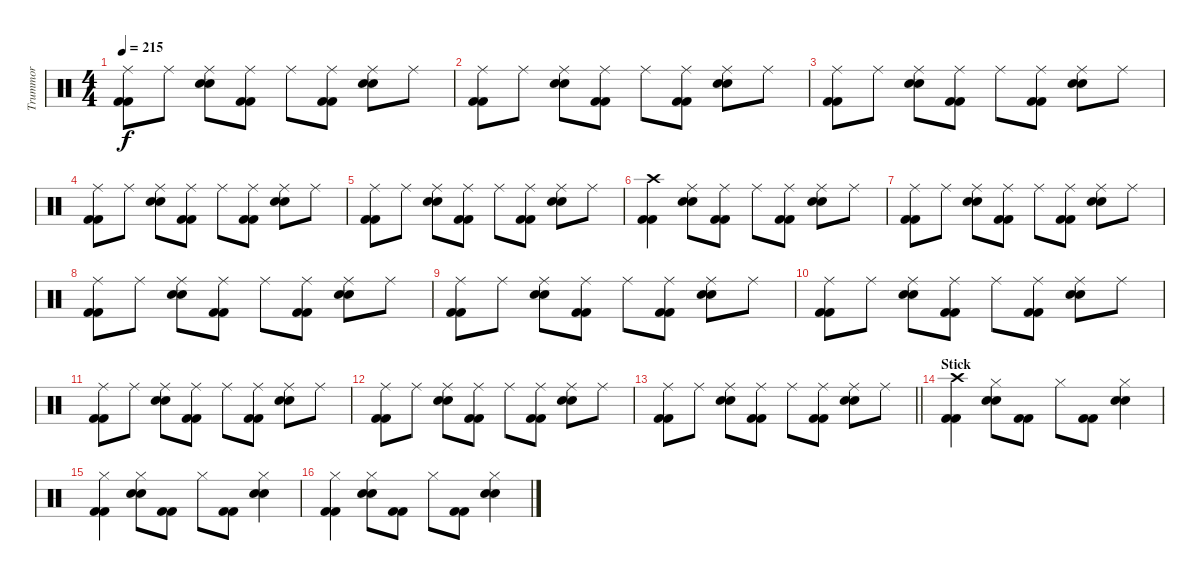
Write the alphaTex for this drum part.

\track ("Trummor" "Trummor") {instrument percussion}
\staff {score}
\articulation defaults
\ts (4 4)
\tempo 215
\clef neutral
\ks c
("Ride (middle)" "Kick (hit) 2" "Kick (hit) 2").8{dy f} "Ride (middle)".8 ("Ride (middle)" "Electric Snare (hit)" "Electric Snare (hit)").8 ("Ride (middle)" "Kick (hit) 2" "Kick (hit) 2").8 "Ride (middle)".8 ("Ride (middle)" "Kick (hit) 2" "Kick (hit) 2").8 ("Ride (middle)" "Electric Snare (hit)" "Electric Snare (hit)").8 "Ride (middle)".8 |
("Ride (middle)" "Kick (hit) 2" "Kick (hit) 2").8 "Ride (middle)".8 ("Ride (middle)" "Electric Snare (hit)" "Electric Snare (hit)").8 ("Ride (middle)" "Kick (hit) 2" "Kick (hit) 2").8 "Ride (middle)".8 ("Ride (middle)" "Kick (hit) 2" "Kick (hit) 2").8 ("Ride (middle)" "Electric Snare (hit)" "Electric Snare (hit)").8 "Ride (middle)".8 |
("Ride (middle)" "Kick (hit) 2" "Kick (hit) 2").8 "Ride (middle)".8 ("Ride (middle)" "Electric Snare (hit)" "Electric Snare (hit)").8 ("Ride (middle)" "Kick (hit) 2" "Kick (hit) 2").8 "Ride (middle)".8 ("Ride (middle)" "Kick (hit) 2" "Kick (hit) 2").8 ("Ride (middle)" "Electric Snare (hit)" "Electric Snare (hit)").8 "Ride (middle)".8 |
("Ride (middle)" "Kick (hit) 2" "Kick (hit) 2").8 "Ride (middle)".8 ("Ride (middle)" "Electric Snare (hit)" "Electric Snare (hit)").8 ("Ride (middle)" "Kick (hit) 2" "Kick (hit) 2").8 "Ride (middle)".8 ("Ride (middle)" "Kick (hit) 2" "Kick (hit) 2").8 ("Ride (middle)" "Electric Snare (hit)" "Electric Snare (hit)").8 "Ride (middle)".8 |
("Ride (middle)" "Kick (hit) 2" "Kick (hit) 2").8 "Ride (middle)".8 ("Ride (middle)" "Electric Snare (hit)" "Electric Snare (hit)").8 ("Ride (middle)" "Kick (hit) 2" "Kick (hit) 2").8 "Ride (middle)".8 ("Ride (middle)" "Kick (hit) 2" "Kick (hit) 2").8 ("Ride (middle)" "Electric Snare (hit)" "Electric Snare (hit)").8 "Ride (middle)".8 |
("Crash high (hit)" "Kick (hit) 2" "Kick (hit) 2").4 ("Ride (middle)" "Electric Snare (hit)" "Electric Snare (hit)").8 ("Ride (middle)" "Kick (hit) 2" "Kick (hit) 2").8 "Ride (middle)".8 ("Ride (middle)" "Kick (hit) 2" "Kick (hit) 2").8 ("Ride (middle)" "Electric Snare (hit)" "Electric Snare (hit)").8 "Ride (middle)".8 |
("Ride (middle)" "Kick (hit) 2" "Kick (hit) 2").8 "Ride (middle)".8 ("Ride (middle)" "Electric Snare (hit)" "Electric Snare (hit)").8 ("Ride (middle)" "Kick (hit) 2" "Kick (hit) 2").8 "Ride (middle)".8 ("Ride (middle)" "Kick (hit) 2" "Kick (hit) 2").8 ("Ride (middle)" "Electric Snare (hit)" "Electric Snare (hit)").8 "Ride (middle)".8 |
("Ride (middle)" "Kick (hit) 2" "Kick (hit) 2").8 "Ride (middle)".8 ("Ride (middle)" "Electric Snare (hit)" "Electric Snare (hit)").8 ("Ride (middle)" "Kick (hit) 2" "Kick (hit) 2").8 "Ride (middle)".8 ("Ride (middle)" "Kick (hit) 2" "Kick (hit) 2").8 ("Ride (middle)" "Electric Snare (hit)" "Electric Snare (hit)").8 "Ride (middle)".8 |
("Ride (middle)" "Kick (hit) 2" "Kick (hit) 2").8 "Ride (middle)".8 ("Ride (middle)" "Electric Snare (hit)" "Electric Snare (hit)").8 ("Ride (middle)" "Kick (hit) 2" "Kick (hit) 2").8 "Ride (middle)".8 ("Ride (middle)" "Kick (hit) 2" "Kick (hit) 2").8 ("Ride (middle)" "Electric Snare (hit)" "Electric Snare (hit)").8 "Ride (middle)".8 |
("Ride (middle)" "Kick (hit) 2" "Kick (hit) 2").8 "Ride (middle)".8 ("Ride (middle)" "Electric Snare (hit)" "Electric Snare (hit)").8 ("Ride (middle)" "Kick (hit) 2" "Kick (hit) 2").8 "Ride (middle)".8 ("Ride (middle)" "Kick (hit) 2" "Kick (hit) 2").8 ("Ride (middle)" "Electric Snare (hit)" "Electric Snare (hit)").8 "Ride (middle)".8 |
("Ride (middle)" "Kick (hit) 2" "Kick (hit) 2").8 "Ride (middle)".8 ("Ride (middle)" "Electric Snare (hit)" "Electric Snare (hit)").8 ("Ride (middle)" "Kick (hit) 2" "Kick (hit) 2").8 "Ride (middle)".8 ("Ride (middle)" "Kick (hit) 2" "Kick (hit) 2").8 ("Ride (middle)" "Electric Snare (hit)" "Electric Snare (hit)").8 "Ride (middle)".8 |
("Ride (middle)" "Kick (hit) 2" "Kick (hit) 2").8 "Ride (middle)".8 ("Ride (middle)" "Electric Snare (hit)" "Electric Snare (hit)").8 ("Ride (middle)" "Kick (hit) 2" "Kick (hit) 2").8 "Ride (middle)".8 ("Ride (middle)" "Kick (hit) 2" "Kick (hit) 2").8 ("Ride (middle)" "Electric Snare (hit)" "Electric Snare (hit)").8 "Ride (middle)".8 |
\barLineRight lightlight
("Ride (middle)" "Kick (hit) 2" "Kick (hit) 2").8 "Ride (middle)".8 ("Ride (middle)" "Electric Snare (hit)" "Electric Snare (hit)").8 ("Ride (middle)" "Kick (hit) 2" "Kick (hit) 2").8 "Ride (middle)".8 ("Ride (middle)" "Kick (hit) 2" "Kick (hit) 2").8 ("Ride (middle)" "Electric Snare (hit)" "Electric Snare (hit)").8 "Ride (middle)".8 |
\section ("" "Stick")
("Crash high (hit)" "Kick (hit) 2" "Kick (hit) 2").4 ("Hi-Hat (closed)" "Electric Snare (hit)" "Electric Snare (hit)").8 ("Kick (hit) 2" "Kick (hit) 2").8 "Hi-Hat (closed)".8 ("Kick (hit) 2" "Kick (hit) 2").8 ("Hi-Hat (closed)" "Electric Snare (hit)" "Electric Snare (hit)").4 |
("Hi-Hat (closed)" "Kick (hit) 2" "Kick (hit) 2").4 ("Hi-Hat (closed)" "Electric Snare (hit)" "Electric Snare (hit)").8 ("Kick (hit) 2" "Kick (hit) 2").8 "Hi-Hat (closed)".8 ("Kick (hit) 2" "Kick (hit) 2").8 ("Hi-Hat (closed)" "Electric Snare (hit)" "Electric Snare (hit)").4 |
("Hi-Hat (closed)" "Kick (hit) 2" "Kick (hit) 2").4 ("Hi-Hat (closed)" "Electric Snare (hit)" "Electric Snare (hit)").8 ("Kick (hit) 2" "Kick (hit) 2").8 "Hi-Hat (closed)".8 ("Kick (hit) 2" "Kick (hit) 2").8 ("Hi-Hat (closed)" "Electric Snare (hit)" "Electric Snare (hit)").4
